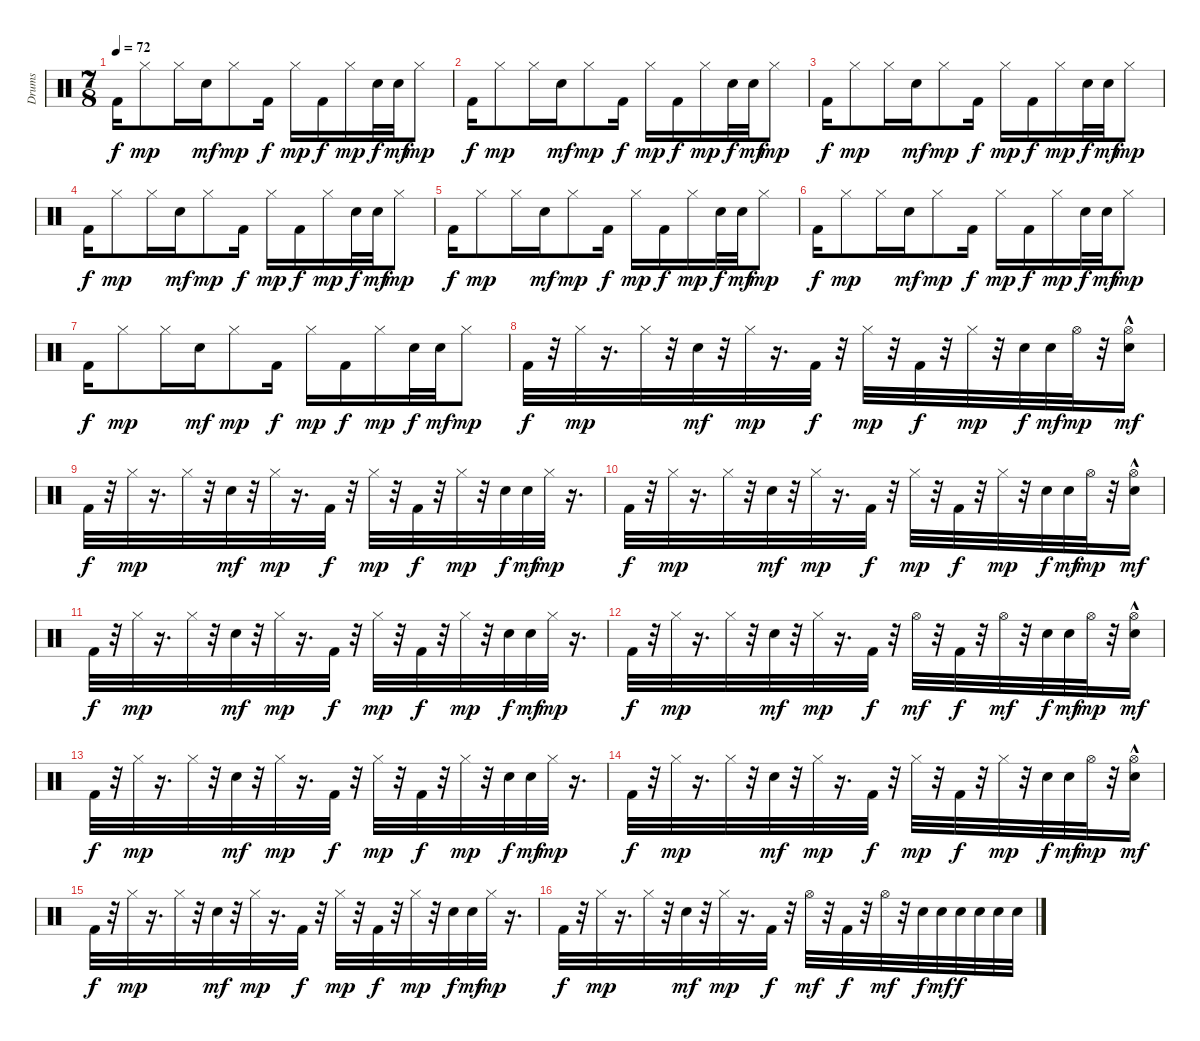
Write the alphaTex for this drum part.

\track ("Drums" "Drums") {instrument percussion}
\staff {score}
\articulation defaults
\ts (7 8)
\tempo 72
\clef neutral
\ks c "Kick (hit) 2".16{dy f} "Hi-Hat (closed)".8{dy mp} "Hi-Hat (closed)".16 "Electric Snare (hit)".16{dy mf} "Hi-Hat (closed)".8{dy mp} "Kick (hit) 2".16{dy f} "Hi-Hat (closed)".16{dy mp} "Kick (hit) 2".16{dy f} "Hi-Hat (closed)".16{dy mp} "Electric Snare (hit)".32{dy f} "Electric Snare (hit)".32{dy mf} "Hi-Hat (closed)".8{dy mp}
|
"Kick (hit) 2".16{dy f} "Hi-Hat (closed)".8{dy mp} "Hi-Hat (closed)".16 "Electric Snare (hit)".16{dy mf} "Hi-Hat (closed)".8{dy mp} "Kick (hit) 2".16{dy f} "Hi-Hat (closed)".16{dy mp} "Kick (hit) 2".16{dy f} "Hi-Hat (closed)".16{dy mp} "Electric Snare (hit)".32{dy f} "Electric Snare (hit)".32{dy mf} "Hi-Hat (closed)".8{dy mp} |
"Kick (hit) 2".16{dy f} "Hi-Hat (closed)".8{dy mp} "Hi-Hat (closed)".16 "Electric Snare (hit)".16{dy mf} "Hi-Hat (closed)".8{dy mp} "Kick (hit) 2".16{dy f} "Hi-Hat (closed)".16{dy mp} "Kick (hit) 2".16{dy f} "Hi-Hat (closed)".16{dy mp} "Electric Snare (hit)".32{dy f} "Electric Snare (hit)".32{dy mf} "Hi-Hat (closed)".8{dy mp} |
"Kick (hit) 2".16{dy f} "Hi-Hat (closed)".8{dy mp} "Hi-Hat (closed)".16 "Electric Snare (hit)".16{dy mf} "Hi-Hat (closed)".8{dy mp} "Kick (hit) 2".16{dy f} "Hi-Hat (closed)".16{dy mp} "Kick (hit) 2".16{dy f} "Hi-Hat (closed)".16{dy mp} "Electric Snare (hit)".32{dy f} "Electric Snare (hit)".32{dy mf} "Hi-Hat (closed)".8{dy mp} |
"Kick (hit) 2".16{dy f} "Hi-Hat (closed)".8{dy mp} "Hi-Hat (closed)".16 "Electric Snare (hit)".16{dy mf} "Hi-Hat (closed)".8{dy mp} "Kick (hit) 2".16{dy f} "Hi-Hat (closed)".16{dy mp} "Kick (hit) 2".16{dy f} "Hi-Hat (closed)".16{dy mp} "Electric Snare (hit)".32{dy f} "Electric Snare (hit)".32{dy mf} "Hi-Hat (closed)".8{dy mp} |
"Kick (hit) 2".16{dy f} "Hi-Hat (closed)".8{dy mp} "Hi-Hat (closed)".16 "Electric Snare (hit)".16{dy mf} "Hi-Hat (closed)".8{dy mp} "Kick (hit) 2".16{dy f} "Hi-Hat (closed)".16{dy mp} "Kick (hit) 2".16{dy f} "Hi-Hat (closed)".16{dy mp} "Electric Snare (hit)".32{dy f} "Electric Snare (hit)".32{dy mf} "Hi-Hat (closed)".8{dy mp} |
"Kick (hit) 2".16{dy f} "Hi-Hat (closed)".8{dy mp} "Hi-Hat (closed)".16 "Electric Snare (hit)".16{dy mf} "Hi-Hat (closed)".8{dy mp} "Kick (hit) 2".16{dy f} "Hi-Hat (closed)".16{dy mp} "Kick (hit) 2".16{dy f} "Hi-Hat (closed)".16{dy mp} "Electric Snare (hit)".32{dy f} "Electric Snare (hit)".32{dy mf} "Hi-Hat (closed)".8{dy mp} |
"Kick (hit) 2".32{dy f} r.32 "Hi-Hat (closed)".32{dy mp} r.16{d} "Hi-Hat (closed)".32 r.32 "Electric Snare (hit)".32{dy mf} r.32 "Hi-Hat (closed)".32{dy mp} r.16{d} "Kick (hit) 2".32{dy f} r.32 "Hi-Hat (closed)".32{dy mp} r.32 "Kick (hit) 2".32{dy f} r.32 "Hi-Hat (closed)".32{dy mp} r.32 "Electric Snare (hit)".32{dy f} "Electric Snare (hit)".32{dy mf} "Hi-Hat (open)".32{dy mp} r.32 ("Electric Snare (hit)"{hac} "Hi-Hat (open)").16{dy mf} |
"Kick (hit) 2".32{dy f} r.32 "Hi-Hat (closed)".32{dy mp} r.16{d} "Hi-Hat (closed)".32 r.32 "Electric Snare (hit)".32{dy mf} r.32 "Hi-Hat (closed)".32{dy mp} r.16{d} "Kick (hit) 2".32{dy f} r.32 "Hi-Hat (closed)".32{dy mp} r.32 "Kick (hit) 2".32{dy f} r.32 "Hi-Hat (closed)".32{dy mp} r.32 "Electric Snare (hit)".32{dy f} "Electric Snare (hit)".32{dy mf} "Hi-Hat (closed)".32{dy mp} r.16{d} |
"Kick (hit) 2".32{dy f} r.32 "Hi-Hat (closed)".32{dy mp} r.16{d} "Hi-Hat (closed)".32 r.32 "Electric Snare (hit)".32{dy mf} r.32 "Hi-Hat (closed)".32{dy mp} r.16{d} "Kick (hit) 2".32{dy f} r.32 "Hi-Hat (closed)".32{dy mp} r.32 "Kick (hit) 2".32{dy f} r.32 "Hi-Hat (closed)".32{dy mp} r.32 "Electric Snare (hit)".32{dy f} "Electric Snare (hit)".32{dy mf} "Hi-Hat (open)".32{dy mp} r.32 ("Electric Snare (hit)"{hac} "Hi-Hat (open)").16{dy mf} |
"Kick (hit) 2".32{dy f} r.32 "Hi-Hat (closed)".32{dy mp} r.16{d} "Hi-Hat (closed)".32 r.32 "Electric Snare (hit)".32{dy mf} r.32 "Hi-Hat (closed)".32{dy mp} r.16{d} "Kick (hit) 2".32{dy f} r.32 "Hi-Hat (closed)".32{dy mp} r.32 "Kick (hit) 2".32{dy f} r.32 "Hi-Hat (closed)".32{dy mp} r.32 "Electric Snare (hit)".32{dy f} "Electric Snare (hit)".32{dy mf} "Hi-Hat (closed)".32{dy mp} r.16{d} |
"Kick (hit) 2".32{dy f} r.32 "Hi-Hat (closed)".32{dy mp} r.16{d} "Hi-Hat (closed)".32 r.32 "Electric Snare (hit)".32{dy mf} r.32 "Hi-Hat (closed)".32{dy mp} r.16{d} "Kick (hit) 2".32{dy f} r.32 "Hi-Hat (open)".32{dy mf} r.32 "Kick (hit) 2".32{dy f} r.32 "Hi-Hat (open)".32{dy mf} r.32 "Electric Snare (hit)".32{dy f} "Electric Snare (hit)".32{dy mf} "Hi-Hat (open)".32{dy mp} r.32 ("Electric Snare (hit)"{hac} "Hi-Hat (open)").16{dy mf} |
"Kick (hit) 2".32{dy f} r.32 "Hi-Hat (closed)".32{dy mp} r.16{d} "Hi-Hat (closed)".32 r.32 "Electric Snare (hit)".32{dy mf} r.32 "Hi-Hat (closed)".32{dy mp} r.16{d} "Kick (hit) 2".32{dy f} r.32 "Hi-Hat (closed)".32{dy mp} r.32 "Kick (hit) 2".32{dy f} r.32 "Hi-Hat (closed)".32{dy mp} r.32 "Electric Snare (hit)".32{dy f} "Electric Snare (hit)".32{dy mf} "Hi-Hat (closed)".32{dy mp} r.16{d} |
"Kick (hit) 2".32{dy f} r.32 "Hi-Hat (closed)".32{dy mp} r.16{d} "Hi-Hat (closed)".32 r.32 "Electric Snare (hit)".32{dy mf} r.32 "Hi-Hat (closed)".32{dy mp} r.16{d} "Kick (hit) 2".32{dy f} r.32 "Hi-Hat (closed)".32{dy mp} r.32 "Kick (hit) 2".32{dy f} r.32 "Hi-Hat (closed)".32{dy mp} r.32 "Electric Snare (hit)".32{dy f} "Electric Snare (hit)".32{dy mf} "Hi-Hat (open)".32{dy mp} r.32 ("Electric Snare (hit)"{hac} "Hi-Hat (open)").16{dy mf} |
"Kick (hit) 2".32{dy f} r.32 "Hi-Hat (closed)".32{dy mp} r.16{d} "Hi-Hat (closed)".32 r.32 "Electric Snare (hit)".32{dy mf} r.32 "Hi-Hat (closed)".32{dy mp} r.16{d} "Kick (hit) 2".32{dy f} r.32 "Hi-Hat (closed)".32{dy mp} r.32 "Kick (hit) 2".32{dy f} r.32 "Hi-Hat (closed)".32{dy mp} r.32 "Electric Snare (hit)".32{dy f} "Electric Snare (hit)".32{dy mf} "Hi-Hat (closed)".32{dy mp} r.16{d} |
"Kick (hit) 2".32{dy f} r.32 "Hi-Hat (closed)".32{dy mp} r.16{d} "Hi-Hat (closed)".32 r.32 "Electric Snare (hit)".32{dy mf} r.32 "Hi-Hat (closed)".32{dy mp} r.16{d} "Kick (hit) 2".32{dy f} r.32 "Hi-Hat (open)".32{dy mf} r.32 "Kick (hit) 2".32{dy f} r.32 "Hi-Hat (open)".32{dy mf} r.32 "Electric Snare (hit)".32{dy f} "Electric Snare (hit)".32{dy mf} "Electric Snare (hit)".32{dy f} "Electric Snare (hit)".32 "Electric Snare (hit)".32 "Electric Snare (hit)".32
